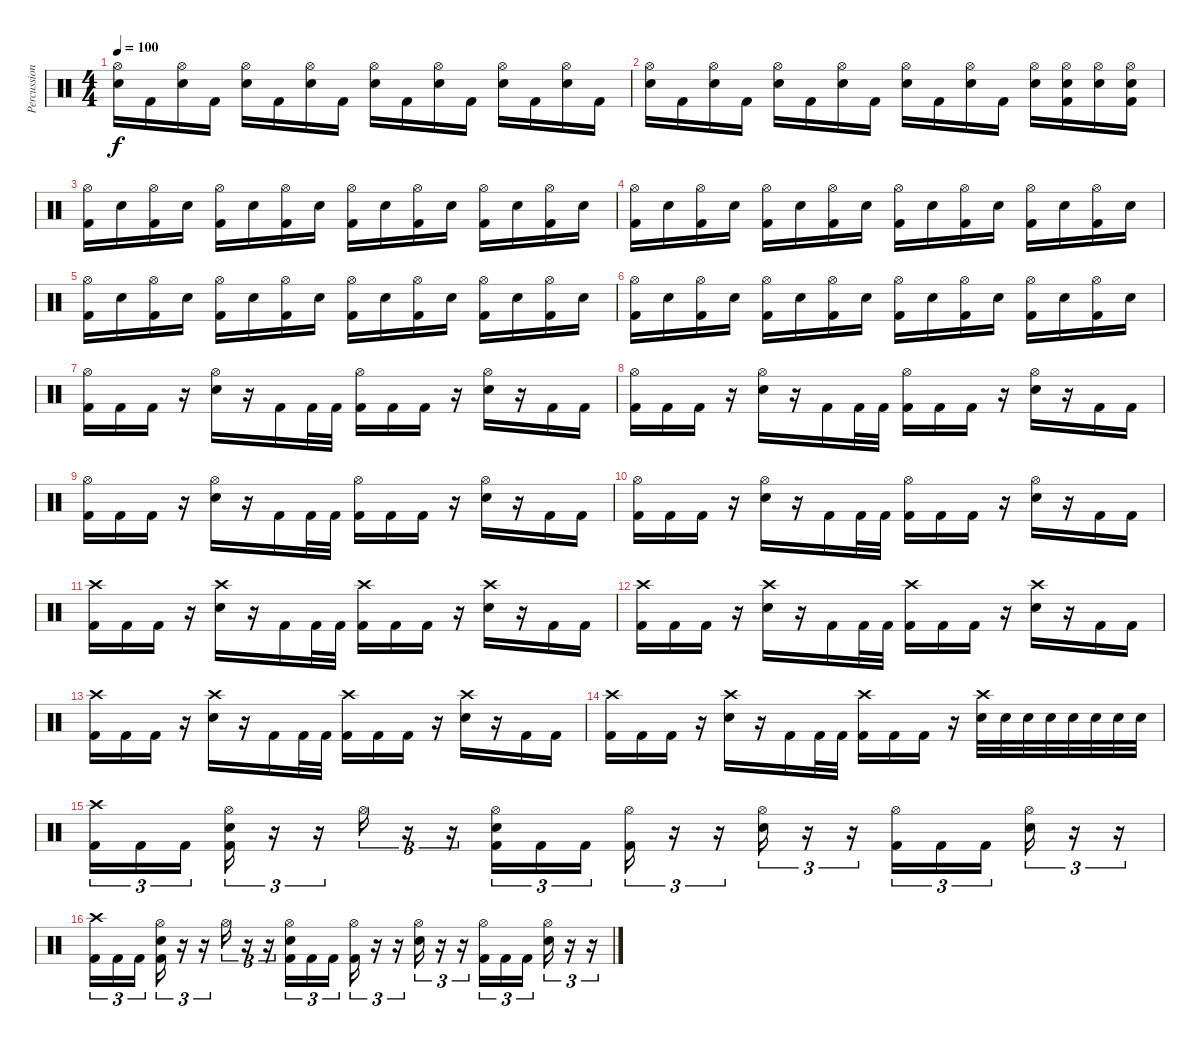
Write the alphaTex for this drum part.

\track ("Percussion" "Percussion") {instrument percussion}
\staff {score}
\articulation defaults
\ts (4 4)
\tempo 100
\clef neutral
\ks c
("Hi-Hat (open)" "Electric Snare (hit)").16{dy f} "Kick (hit) 2".16 ("Hi-Hat (open)" "Electric Snare (hit)").16 "Kick (hit) 2".16 ("Hi-Hat (open)" "Electric Snare (hit)").16 "Kick (hit) 2".16 ("Hi-Hat (open)" "Electric Snare (hit)").16 "Kick (hit) 2".16 ("Hi-Hat (open)" "Electric Snare (hit)").16 "Kick (hit) 2".16 ("Hi-Hat (open)" "Electric Snare (hit)").16 "Kick (hit) 2".16 ("Hi-Hat (open)" "Electric Snare (hit)").16 "Kick (hit) 2".16 ("Hi-Hat (open)" "Electric Snare (hit)").16 "Kick (hit) 2".16 |
("Hi-Hat (open)" "Electric Snare (hit)").16 "Kick (hit) 2".16 ("Hi-Hat (open)" "Electric Snare (hit)").16 "Kick (hit) 2".16 ("Hi-Hat (open)" "Electric Snare (hit)").16 "Kick (hit) 2".16 ("Hi-Hat (open)" "Electric Snare (hit)").16 "Kick (hit) 2".16 ("Hi-Hat (open)" "Electric Snare (hit)").16 "Kick (hit) 2".16 ("Hi-Hat (open)" "Electric Snare (hit)").16 "Kick (hit) 2".16 ("Hi-Hat (open)" "Electric Snare (hit)").16 ("Hi-Hat (open)" "Electric Snare (hit)" "Kick (hit) 2").16 ("Hi-Hat (open)" "Electric Snare (hit)").16 ("Hi-Hat (open)" "Electric Snare (hit)" "Kick (hit) 2").16 |
("Hi-Hat (open)" "Kick (hit) 2").16 "Electric Snare (hit)".16 ("Hi-Hat (open)" "Kick (hit) 2").16 "Electric Snare (hit)".16 ("Hi-Hat (open)" "Kick (hit) 2").16 "Electric Snare (hit)".16 ("Hi-Hat (open)" "Kick (hit) 2").16 "Electric Snare (hit)".16 ("Hi-Hat (open)" "Kick (hit) 2").16 "Electric Snare (hit)".16 ("Hi-Hat (open)" "Kick (hit) 2").16 "Electric Snare (hit)".16 ("Hi-Hat (open)" "Kick (hit) 2").16 "Electric Snare (hit)".16 ("Hi-Hat (open)" "Kick (hit) 2").16 "Electric Snare (hit)".16 |
("Hi-Hat (open)" "Kick (hit) 2").16 "Electric Snare (hit)".16 ("Hi-Hat (open)" "Kick (hit) 2").16 "Electric Snare (hit)".16 ("Hi-Hat (open)" "Kick (hit) 2").16 "Electric Snare (hit)".16 ("Hi-Hat (open)" "Kick (hit) 2").16 "Electric Snare (hit)".16 ("Hi-Hat (open)" "Kick (hit) 2").16 "Electric Snare (hit)".16 ("Hi-Hat (open)" "Kick (hit) 2").16 "Electric Snare (hit)".16 ("Hi-Hat (open)" "Kick (hit) 2").16 "Electric Snare (hit)".16 ("Hi-Hat (open)" "Kick (hit) 2").16 "Electric Snare (hit)".16 |
("Hi-Hat (open)" "Kick (hit) 2").16 "Electric Snare (hit)".16 ("Hi-Hat (open)" "Kick (hit) 2").16 "Electric Snare (hit)".16 ("Hi-Hat (open)" "Kick (hit) 2").16 "Electric Snare (hit)".16 ("Hi-Hat (open)" "Kick (hit) 2").16 "Electric Snare (hit)".16 ("Hi-Hat (open)" "Kick (hit) 2").16 "Electric Snare (hit)".16 ("Hi-Hat (open)" "Kick (hit) 2").16 "Electric Snare (hit)".16 ("Hi-Hat (open)" "Kick (hit) 2").16 "Electric Snare (hit)".16 ("Hi-Hat (open)" "Kick (hit) 2").16 "Electric Snare (hit)".16 |
("Hi-Hat (open)" "Kick (hit) 2").16 "Electric Snare (hit)".16 ("Hi-Hat (open)" "Kick (hit) 2").16 "Electric Snare (hit)".16 ("Hi-Hat (open)" "Kick (hit) 2").16 "Electric Snare (hit)".16 ("Hi-Hat (open)" "Kick (hit) 2").16 "Electric Snare (hit)".16 ("Hi-Hat (open)" "Kick (hit) 2").16 "Electric Snare (hit)".16 ("Hi-Hat (open)" "Kick (hit) 2").16 "Electric Snare (hit)".16 ("Hi-Hat (open)" "Kick (hit) 2").16 "Electric Snare (hit)".16 ("Hi-Hat (open)" "Kick (hit) 2").16 "Electric Snare (hit)".16 |
("Hi-Hat (open)" "Kick (hit) 2").16 "Kick (hit) 2".16 "Kick (hit) 2".16 r.16 ("Hi-Hat (open)" "Electric Snare (hit)").16 r.16 "Kick (hit) 2".16 "Kick (hit) 2".32 "Kick (hit) 2".32 ("Hi-Hat (open)" "Kick (hit) 2").16 "Kick (hit) 2".16 "Kick (hit) 2".16 r.16 ("Hi-Hat (open)" "Electric Snare (hit)").16 r.16 "Kick (hit) 2".16 "Kick (hit) 2".16 |
("Hi-Hat (open)" "Kick (hit) 2").16 "Kick (hit) 2".16 "Kick (hit) 2".16 r.16 ("Hi-Hat (open)" "Electric Snare (hit)").16 r.16 "Kick (hit) 2".16 "Kick (hit) 2".32 "Kick (hit) 2".32 ("Hi-Hat (open)" "Kick (hit) 2").16 "Kick (hit) 2".16 "Kick (hit) 2".16 r.16 ("Hi-Hat (open)" "Electric Snare (hit)").16 r.16 "Kick (hit) 2".16 "Kick (hit) 2".16 |
("Hi-Hat (open)" "Kick (hit) 2").16 "Kick (hit) 2".16 "Kick (hit) 2".16 r.16 ("Hi-Hat (open)" "Electric Snare (hit)").16 r.16 "Kick (hit) 2".16 "Kick (hit) 2".32 "Kick (hit) 2".32 ("Hi-Hat (open)" "Kick (hit) 2").16 "Kick (hit) 2".16 "Kick (hit) 2".16 r.16 ("Hi-Hat (open)" "Electric Snare (hit)").16 r.16 "Kick (hit) 2".16 "Kick (hit) 2".16 |
("Hi-Hat (open)" "Kick (hit) 2").16 "Kick (hit) 2".16 "Kick (hit) 2".16 r.16 ("Hi-Hat (open)" "Electric Snare (hit)").16 r.16 "Kick (hit) 2".16 "Kick (hit) 2".32 "Kick (hit) 2".32 ("Hi-Hat (open)" "Kick (hit) 2").16 "Kick (hit) 2".16 "Kick (hit) 2".16 r.16 ("Hi-Hat (open)" "Electric Snare (hit)").16 r.16 "Kick (hit) 2".16 "Kick (hit) 2".16 |
("Crash high (hit)" "Kick (hit) 2").16 "Kick (hit) 2".16 "Kick (hit) 2".16 r.16 ("Crash high (hit)" "Electric Snare (hit)").16 r.16 "Kick (hit) 2".16 "Kick (hit) 2".32 "Kick (hit) 2".32 ("Crash high (hit)" "Kick (hit) 2").16 "Kick (hit) 2".16 "Kick (hit) 2".16 r.16 ("Crash high (hit)" "Electric Snare (hit)").16 r.16 "Kick (hit) 2".16 "Kick (hit) 2".16 |
("Crash high (hit)" "Kick (hit) 2").16 "Kick (hit) 2".16 "Kick (hit) 2".16 r.16 ("Crash high (hit)" "Electric Snare (hit)").16 r.16 "Kick (hit) 2".16 "Kick (hit) 2".32 "Kick (hit) 2".32 ("Crash high (hit)" "Kick (hit) 2").16 "Kick (hit) 2".16 "Kick (hit) 2".16 r.16 ("Crash high (hit)" "Electric Snare (hit)").16 r.16 "Kick (hit) 2".16 "Kick (hit) 2".16 |
("Crash high (hit)" "Kick (hit) 2").16 "Kick (hit) 2".16 "Kick (hit) 2".16 r.16 ("Crash high (hit)" "Electric Snare (hit)").16 r.16 "Kick (hit) 2".16 "Kick (hit) 2".32 "Kick (hit) 2".32 ("Crash high (hit)" "Kick (hit) 2").16 "Kick (hit) 2".16 "Kick (hit) 2".16 r.16 ("Crash high (hit)" "Electric Snare (hit)").16 r.16 "Kick (hit) 2".16 "Kick (hit) 2".16 |
("Crash high (hit)" "Kick (hit) 2").16 "Kick (hit) 2".16 "Kick (hit) 2".16 r.16 ("Crash high (hit)" "Electric Snare (hit)").16 r.16 "Kick (hit) 2".16 "Kick (hit) 2".32 "Kick (hit) 2".32 ("Crash high (hit)" "Kick (hit) 2").16 "Kick (hit) 2".16 "Kick (hit) 2".16 r.16 ("Crash high (hit)" "Electric Snare (hit)").32 "Electric Snare (hit)".32 "Electric Snare (hit)".32 "Electric Snare (hit)".32 "Electric Snare (hit)".32 "Electric Snare (hit)".32 "Electric Snare (hit)".32 "Electric Snare (hit)".32 |
("Crash high (hit)" "Kick (hit) 2").16{tu (3 2)} "Kick (hit) 2".16{tu (3 2)} "Kick (hit) 2".16{tu (3 2)} ("Hi-Hat (open)" "Electric Snare (hit)" "Kick (hit) 2").16{tu (3 2)} r.16{tu (3 2)} r.16{tu (3 2)} "Hi-Hat (open)".16{tu (3 2)} r.16{tu (3 2)} r.16{tu (3 2)} ("Hi-Hat (open)" "Electric Snare (hit)" "Kick (hit) 2").16{tu (3 2)} "Kick (hit) 2".16{tu (3 2)} "Kick (hit) 2".16{tu (3 2)} ("Hi-Hat (open)" "Kick (hit) 2").16{tu (3 2)} r.16{tu (3 2)} r.16{tu (3 2)} ("Hi-Hat (open)" "Electric Snare (hit)").16{tu (3 2)} r.16{tu (3 2)} r.16{tu (3 2)} ("Hi-Hat (open)" "Kick (hit) 2").16{tu (3 2)} "Kick (hit) 2".16{tu (3 2)} "Kick (hit) 2".16{tu (3 2)} ("Hi-Hat (open)" "Electric Snare (hit)").16{tu (3 2)} r.16{tu (3 2)} r.16{tu (3 2)} |
("Crash high (hit)" "Kick (hit) 2").16{tu (3 2)} "Kick (hit) 2".16{tu (3 2)} "Kick (hit) 2".16{tu (3 2)} ("Hi-Hat (open)" "Electric Snare (hit)" "Kick (hit) 2").16{tu (3 2)} r.16{tu (3 2)} r.16{tu (3 2)} "Hi-Hat (open)".16{tu (3 2)} r.16{tu (3 2)} r.16{tu (3 2)} ("Hi-Hat (open)" "Electric Snare (hit)" "Kick (hit) 2").16{tu (3 2)} "Kick (hit) 2".16{tu (3 2)} "Kick (hit) 2".16{tu (3 2)} ("Hi-Hat (open)" "Kick (hit) 2").16{tu (3 2)} r.16{tu (3 2)} r.16{tu (3 2)} ("Hi-Hat (open)" "Electric Snare (hit)").16{tu (3 2)} r.16{tu (3 2)} r.16{tu (3 2)} ("Hi-Hat (open)" "Kick (hit) 2").16{tu (3 2)} "Kick (hit) 2".16{tu (3 2)} "Kick (hit) 2".16{tu (3 2)} ("Hi-Hat (open)" "Electric Snare (hit)").16{tu (3 2)} r.16{tu (3 2)} r.16{tu (3 2)}
